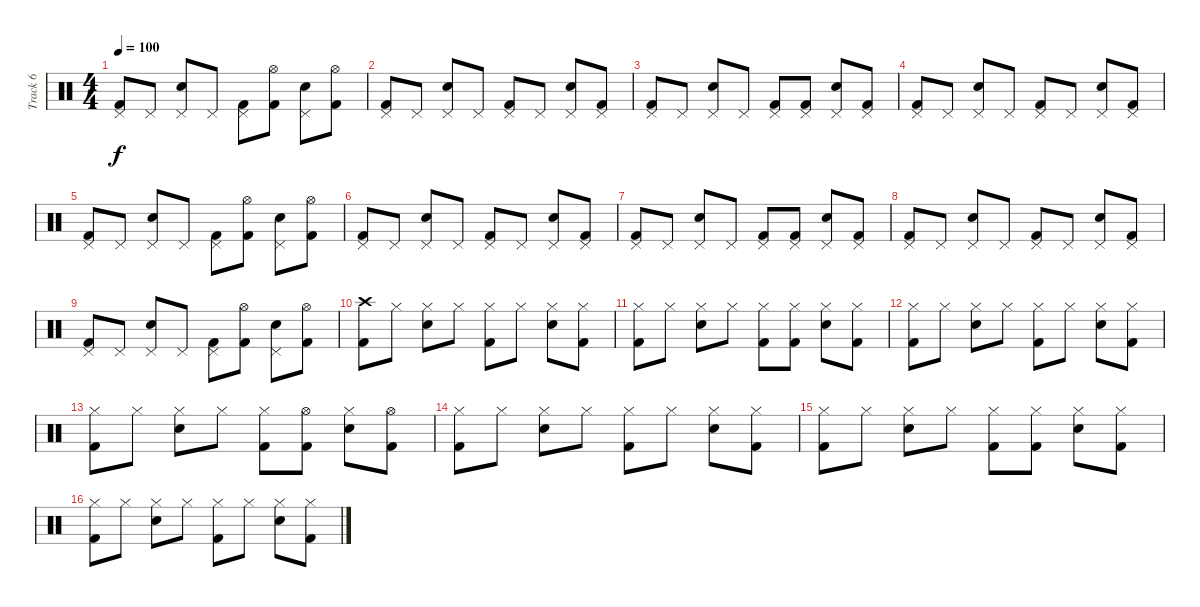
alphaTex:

\track ("Track 6" "Track 6") {instrument percussion}
\staff {score}
\articulation defaults
\ts (4 4)
\tempo 100
\clef neutral
\ks c
("Pedal Hi-Hat (hit)" "Kick (hit) 2").8{dy f} "Pedal Hi-Hat (hit)".8 ("Pedal Hi-Hat (hit)" "Electric Snare (hit)").8 "Pedal Hi-Hat (hit)".8 ("Pedal Hi-Hat (hit)" "Kick (hit) 2").8 ("Hi-Hat (open)" "Kick (hit) 2").8 ("Pedal Hi-Hat (hit)" "Electric Snare (hit)").8 ("Hi-Hat (open)" "Kick (hit) 2").8 |
("Pedal Hi-Hat (hit)" "Kick (hit) 2").8 "Pedal Hi-Hat (hit)".8 ("Pedal Hi-Hat (hit)" "Electric Snare (hit)").8 "Pedal Hi-Hat (hit)".8 ("Pedal Hi-Hat (hit)" "Kick (hit) 2").8 "Pedal Hi-Hat (hit)".8 ("Pedal Hi-Hat (hit)" "Electric Snare (hit)").8 ("Pedal Hi-Hat (hit)" "Kick (hit) 2").8 |
("Pedal Hi-Hat (hit)" "Kick (hit) 2").8 "Pedal Hi-Hat (hit)".8 ("Pedal Hi-Hat (hit)" "Electric Snare (hit)").8 "Pedal Hi-Hat (hit)".8 ("Pedal Hi-Hat (hit)" "Kick (hit) 2").8 ("Pedal Hi-Hat (hit)" "Kick (hit) 2").8 ("Pedal Hi-Hat (hit)" "Electric Snare (hit)").8 ("Pedal Hi-Hat (hit)" "Kick (hit) 2").8 |
("Pedal Hi-Hat (hit)" "Kick (hit) 2").8 "Pedal Hi-Hat (hit)".8 ("Pedal Hi-Hat (hit)" "Electric Snare (hit)").8 "Pedal Hi-Hat (hit)".8 ("Pedal Hi-Hat (hit)" "Kick (hit) 2").8 "Pedal Hi-Hat (hit)".8 ("Pedal Hi-Hat (hit)" "Electric Snare (hit)").8 ("Pedal Hi-Hat (hit)" "Kick (hit) 2").8 |
("Pedal Hi-Hat (hit)" "Kick (hit) 2").8 "Pedal Hi-Hat (hit)".8 ("Pedal Hi-Hat (hit)" "Electric Snare (hit)").8 "Pedal Hi-Hat (hit)".8 ("Pedal Hi-Hat (hit)" "Kick (hit) 2").8 ("Hi-Hat (open)" "Kick (hit) 2").8 ("Pedal Hi-Hat (hit)" "Electric Snare (hit)").8 ("Hi-Hat (open)" "Kick (hit) 2").8 |
("Pedal Hi-Hat (hit)" "Kick (hit) 2").8 "Pedal Hi-Hat (hit)".8 ("Pedal Hi-Hat (hit)" "Electric Snare (hit)").8 "Pedal Hi-Hat (hit)".8 ("Pedal Hi-Hat (hit)" "Kick (hit) 2").8 "Pedal Hi-Hat (hit)".8 ("Pedal Hi-Hat (hit)" "Electric Snare (hit)").8 ("Pedal Hi-Hat (hit)" "Kick (hit) 2").8 |
("Pedal Hi-Hat (hit)" "Kick (hit) 2").8 "Pedal Hi-Hat (hit)".8 ("Pedal Hi-Hat (hit)" "Electric Snare (hit)").8 "Pedal Hi-Hat (hit)".8 ("Pedal Hi-Hat (hit)" "Kick (hit) 2").8 ("Pedal Hi-Hat (hit)" "Kick (hit) 2").8 ("Pedal Hi-Hat (hit)" "Electric Snare (hit)").8 ("Pedal Hi-Hat (hit)" "Kick (hit) 2").8 |
("Pedal Hi-Hat (hit)" "Kick (hit) 2").8 "Pedal Hi-Hat (hit)".8 ("Pedal Hi-Hat (hit)" "Electric Snare (hit)").8 "Pedal Hi-Hat (hit)".8 ("Pedal Hi-Hat (hit)" "Kick (hit) 2").8 "Pedal Hi-Hat (hit)".8 ("Pedal Hi-Hat (hit)" "Electric Snare (hit)").8 ("Pedal Hi-Hat (hit)" "Kick (hit) 2").8 |
("Pedal Hi-Hat (hit)" "Kick (hit) 2").8 "Pedal Hi-Hat (hit)".8 ("Pedal Hi-Hat (hit)" "Electric Snare (hit)").8 "Pedal Hi-Hat (hit)".8 ("Pedal Hi-Hat (hit)" "Kick (hit) 2").8 ("Hi-Hat (open)" "Kick (hit) 2").8 ("Pedal Hi-Hat (hit)" "Electric Snare (hit)").8 ("Hi-Hat (open)" "Kick (hit) 2").8 |
("Crash high (hit)" "Kick (hit) 2").8 "Hi-Hat (closed)".8 ("Hi-Hat (closed)" "Electric Snare (hit)").8 "Hi-Hat (closed)".8 ("Hi-Hat (closed)" "Kick (hit) 2").8 "Hi-Hat (closed)".8 ("Hi-Hat (closed)" "Electric Snare (hit)").8 ("Hi-Hat (closed)" "Kick (hit) 2").8 |
("Hi-Hat (closed)" "Kick (hit) 2").8 "Hi-Hat (closed)".8 ("Hi-Hat (closed)" "Electric Snare (hit)").8 "Hi-Hat (closed)".8 ("Hi-Hat (closed)" "Kick (hit) 2").8 ("Hi-Hat (closed)" "Kick (hit) 2").8 ("Hi-Hat (closed)" "Electric Snare (hit)").8 ("Hi-Hat (closed)" "Kick (hit) 2").8 |
("Hi-Hat (closed)" "Kick (hit) 2").8 "Hi-Hat (closed)".8 ("Hi-Hat (closed)" "Electric Snare (hit)").8 "Hi-Hat (closed)".8 ("Hi-Hat (closed)" "Kick (hit) 2").8 "Hi-Hat (closed)".8 ("Hi-Hat (closed)" "Electric Snare (hit)").8 ("Hi-Hat (closed)" "Kick (hit) 2").8 |
("Hi-Hat (closed)" "Kick (hit) 2").8 "Hi-Hat (closed)".8 ("Hi-Hat (closed)" "Electric Snare (hit)").8 "Hi-Hat (closed)".8 ("Hi-Hat (closed)" "Kick (hit) 2").8 ("Hi-Hat (open)" "Kick (hit) 2").8 ("Hi-Hat (closed)" "Electric Snare (hit)").8 ("Hi-Hat (open)" "Kick (hit) 2").8 |
("Hi-Hat (closed)" "Kick (hit) 2").8 "Hi-Hat (closed)".8 ("Hi-Hat (closed)" "Electric Snare (hit)").8 "Hi-Hat (closed)".8 ("Hi-Hat (closed)" "Kick (hit) 2").8 "Hi-Hat (closed)".8 ("Hi-Hat (closed)" "Electric Snare (hit)").8 ("Hi-Hat (closed)" "Kick (hit) 2").8 |
("Hi-Hat (closed)" "Kick (hit) 2").8 "Hi-Hat (closed)".8 ("Hi-Hat (closed)" "Electric Snare (hit)").8 "Hi-Hat (closed)".8 ("Hi-Hat (closed)" "Kick (hit) 2").8 ("Hi-Hat (closed)" "Kick (hit) 2").8 ("Hi-Hat (closed)" "Electric Snare (hit)").8 ("Hi-Hat (closed)" "Kick (hit) 2").8 |
("Hi-Hat (closed)" "Kick (hit) 2").8 "Hi-Hat (closed)".8 ("Hi-Hat (closed)" "Electric Snare (hit)").8 "Hi-Hat (closed)".8 ("Hi-Hat (closed)" "Kick (hit) 2").8 "Hi-Hat (closed)".8 ("Hi-Hat (closed)" "Electric Snare (hit)").8 ("Hi-Hat (closed)" "Kick (hit) 2").8
